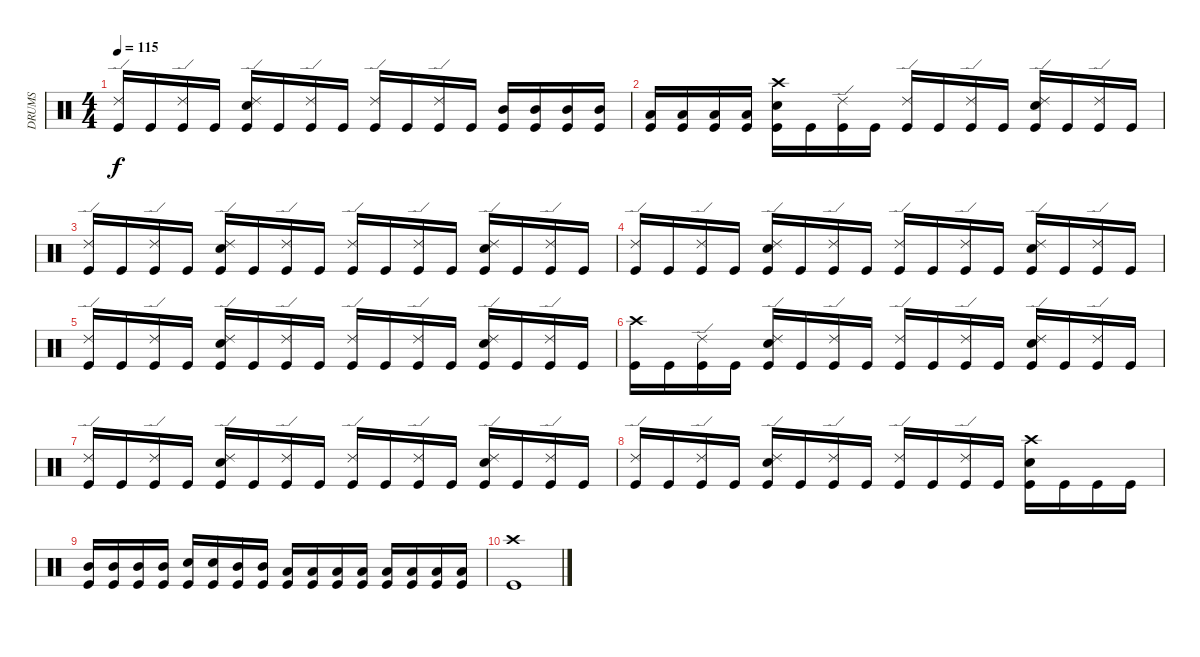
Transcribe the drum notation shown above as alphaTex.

\track ("DRUMS" "DRUMS") {instrument percussion}
\staff {score}
\articulation defaults
\ts (4 4)
\tempo 115
\clef neutral
\ks c
("Ride (edge) 2" "Kick (hit)").16{dy f} "Kick (hit)".16 ("Ride (edge) 2" "Kick (hit)").16 "Kick (hit)".16 ("Ride (edge) 2" "Snare (hit) 2" "Kick (hit)").16 "Kick (hit)".16 ("Ride (edge) 2" "Kick (hit)").16 "Kick (hit)".16 ("Ride (edge) 2" "Kick (hit)").16 "Kick (hit)".16 ("Ride (edge) 2" "Kick (hit)").16 "Kick (hit)".16 ("Mid Tom (hit)" "Kick (hit)").16 ("Mid Tom (hit)" "Kick (hit)").16 ("Mid Tom (hit)" "Kick (hit)").16 ("Mid Tom (hit)" "Kick (hit)").16 |
("Low Tom (hit)" "Kick (hit)").16 ("Low Tom (hit)" "Kick (hit)").16 ("Low Tom (hit)" "Kick (hit)").16 ("Low Tom (hit)" "Kick (hit)").16 ("Crash high (hit)" "Snare (hit) 2" "Kick (hit)").16 "Kick (hit)".16 ("Ride (edge) 2" "Kick (hit)").16 "Kick (hit)".16 ("Ride (edge) 2" "Kick (hit)").16 "Kick (hit)".16 ("Ride (edge) 2" "Kick (hit)").16 "Kick (hit)".16 ("Ride (edge) 2" "Snare (hit) 2" "Kick (hit)").16 "Kick (hit)".16 ("Ride (edge) 2" "Kick (hit)").16 "Kick (hit)".16 |
("Ride (edge) 2" "Kick (hit)").16 "Kick (hit)".16 ("Ride (edge) 2" "Kick (hit)").16 "Kick (hit)".16 ("Ride (edge) 2" "Snare (hit) 2" "Kick (hit)").16 "Kick (hit)".16 ("Ride (edge) 2" "Kick (hit)").16 "Kick (hit)".16 ("Ride (edge) 2" "Kick (hit)").16 "Kick (hit)".16 ("Ride (edge) 2" "Kick (hit)").16 "Kick (hit)".16 ("Ride (edge) 2" "Snare (hit) 2" "Kick (hit)").16 "Kick (hit)".16 ("Ride (edge) 2" "Kick (hit)").16 "Kick (hit)".16 |
("Ride (edge) 2" "Kick (hit)").16 "Kick (hit)".16 ("Ride (edge) 2" "Kick (hit)").16 "Kick (hit)".16 ("Ride (edge) 2" "Snare (hit) 2" "Kick (hit)").16 "Kick (hit)".16 ("Ride (edge) 2" "Kick (hit)").16 "Kick (hit)".16 ("Ride (edge) 2" "Kick (hit)").16 "Kick (hit)".16 ("Ride (edge) 2" "Kick (hit)").16 "Kick (hit)".16 ("Ride (edge) 2" "Snare (hit) 2" "Kick (hit)").16 "Kick (hit)".16 ("Ride (edge) 2" "Kick (hit)").16 "Kick (hit)".16 |
("Ride (edge) 2" "Kick (hit)").16 "Kick (hit)".16 ("Ride (edge) 2" "Kick (hit)").16 "Kick (hit)".16 ("Ride (edge) 2" "Snare (hit) 2" "Kick (hit)").16 "Kick (hit)".16 ("Ride (edge) 2" "Kick (hit)").16 "Kick (hit)".16 ("Ride (edge) 2" "Kick (hit)").16 "Kick (hit)".16 ("Ride (edge) 2" "Kick (hit)").16 "Kick (hit)".16 ("Ride (edge) 2" "Snare (hit) 2" "Kick (hit)").16 "Kick (hit)".16 ("Ride (edge) 2" "Kick (hit)").16 "Kick (hit)".16 |
("Crash high (hit)" "Kick (hit)").16 "Kick (hit)".16 ("Ride (edge) 2" "Kick (hit)").16 "Kick (hit)".16 ("Ride (edge) 2" "Snare (hit) 2" "Kick (hit)").16 "Kick (hit)".16 ("Ride (edge) 2" "Kick (hit)").16 "Kick (hit)".16 ("Ride (edge) 2" "Kick (hit)").16 "Kick (hit)".16 ("Ride (edge) 2" "Kick (hit)").16 "Kick (hit)".16 ("Ride (edge) 2" "Snare (hit) 2" "Kick (hit)").16 "Kick (hit)".16 ("Ride (edge) 2" "Kick (hit)").16 "Kick (hit)".16 |
("Ride (edge) 2" "Kick (hit)").16 "Kick (hit)".16 ("Ride (edge) 2" "Kick (hit)").16 "Kick (hit)".16 ("Ride (edge) 2" "Snare (hit) 2" "Kick (hit)").16 "Kick (hit)".16 ("Ride (edge) 2" "Kick (hit)").16 "Kick (hit)".16 ("Ride (edge) 2" "Kick (hit)").16 "Kick (hit)".16 ("Ride (edge) 2" "Kick (hit)").16 "Kick (hit)".16 ("Ride (edge) 2" "Snare (hit) 2" "Kick (hit)").16 "Kick (hit)".16 ("Ride (edge) 2" "Kick (hit)").16 "Kick (hit)".16 |
("Ride (edge) 2" "Kick (hit)").16 "Kick (hit)".16 ("Ride (edge) 2" "Kick (hit)").16 "Kick (hit)".16 ("Ride (edge) 2" "Snare (hit) 2" "Kick (hit)").16 "Kick (hit)".16 ("Ride (edge) 2" "Kick (hit)").16 "Kick (hit)".16 ("Ride (edge) 2" "Kick (hit)").16 "Kick (hit)".16 ("Ride (edge) 2" "Kick (hit)").16 "Kick (hit)".16 ("Crash high (hit)" "Snare (hit) 2" "Kick (hit)").16 "Kick (hit)".16 "Kick (hit)".16 "Kick (hit)".16 |
("Mid Tom (hit)" "Kick (hit)").16 ("Mid Tom (hit)" "Kick (hit)").16 ("Mid Tom (hit)" "Kick (hit)").16 ("Mid Tom (hit)" "Kick (hit)").16 ("Snare (hit) 2" "Kick (hit)").16 ("Snare (hit) 2" "Kick (hit)").16 ("Mid Tom (hit)" "Kick (hit)").16 ("Mid Tom (hit)" "Kick (hit)").16 ("Low Tom (hit)" "Kick (hit)").16 ("Low Tom (hit)" "Kick (hit)").16 ("Low Tom (hit)" "Kick (hit)").16 ("Low Tom (hit)" "Kick (hit)").16 ("Low Tom (hit)" "Kick (hit)").16 ("Low Tom (hit)" "Kick (hit)").16 ("Low Tom (hit)" "Kick (hit)").16 ("Low Tom (hit)" "Kick (hit)").16 |
("Crash high (hit)" "Kick (hit)").1
